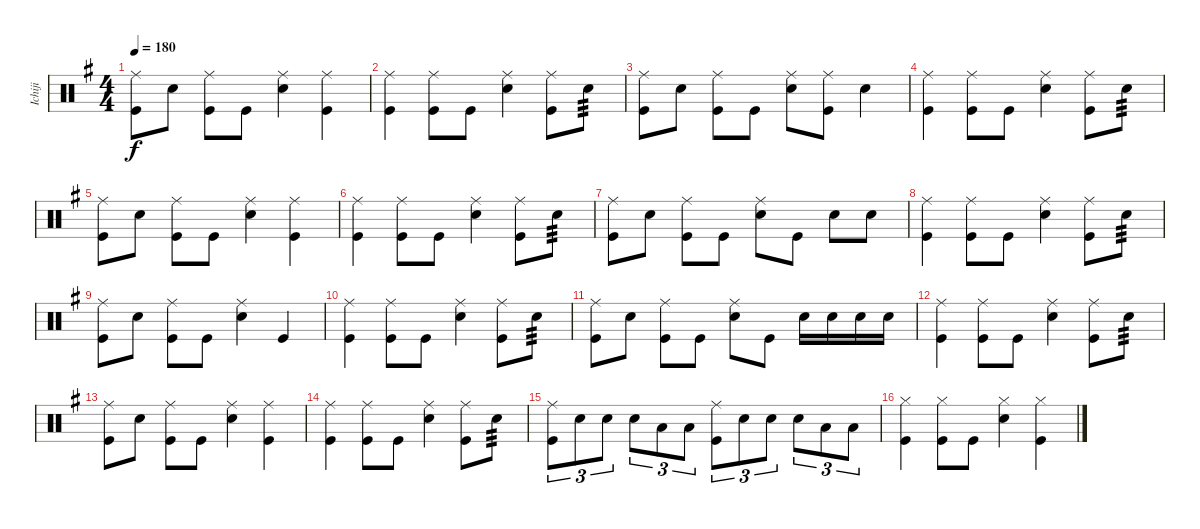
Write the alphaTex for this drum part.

\track ("Ichiji" "Ichiji") {instrument percussion}
\staff {score}
\articulation defaults
\ts (4 4)
\tempo 180
\clef neutral
\ks g
("Ride (middle)" "Kick (hit)").8{dy f} "Snare (hit) 2".8 ("Ride (middle)" "Kick (hit)").8 "Kick (hit)".8 ("Ride (middle)" "Snare (hit) 2").4 ("Ride (middle)" "Kick (hit)").4 |
("Ride (middle)" "Kick (hit)").4 ("Ride (middle)" "Kick (hit)").8 "Kick (hit)".8 ("Ride (middle)" "Snare (hit) 2").4 ("Ride (middle)" "Kick (hit)").8 "Snare (hit) 2".8{tp 3} |
("Ride (middle)" "Kick (hit)").8 "Snare (hit) 2".8 ("Ride (middle)" "Kick (hit)").8 "Kick (hit)".8 ("Ride (middle)" "Snare (hit) 2").8 ("Ride (middle)" "Kick (hit)").8 "Snare (hit) 2".4 |
("Ride (middle)" "Kick (hit)").4 ("Ride (middle)" "Kick (hit)").8 "Kick (hit)".8 ("Ride (middle)" "Snare (hit) 2").4 ("Ride (middle)" "Kick (hit)").8 "Snare (hit) 2".8{tp 3} |
("Ride (middle)" "Kick (hit)").8 "Snare (hit) 2".8 ("Ride (middle)" "Kick (hit)").8 "Kick (hit)".8 ("Ride (middle)" "Snare (hit) 2").4 ("Ride (middle)" "Kick (hit)").4 |
("Ride (middle)" "Kick (hit)").4 ("Ride (middle)" "Kick (hit)").8 "Kick (hit)".8 ("Ride (middle)" "Snare (hit) 2").4 ("Ride (middle)" "Kick (hit)").8 "Snare (hit) 2".8{tp 3} |
("Ride (middle)" "Kick (hit)").8 "Snare (hit) 2".8 ("Ride (middle)" "Kick (hit)").8 "Kick (hit)".8 ("Ride (middle)" "Snare (hit) 2").8 "Kick (hit)".8 "Snare (hit) 2".8 "Snare (hit) 2".8 |
("Ride (middle)" "Kick (hit)").4 ("Ride (middle)" "Kick (hit)").8 "Kick (hit)".8 ("Ride (middle)" "Snare (hit) 2").4 ("Ride (middle)" "Kick (hit)").8 "Snare (hit) 2".8{tp 3} |
("Ride (middle)" "Kick (hit)").8 "Snare (hit) 2".8 ("Ride (middle)" "Kick (hit)").8 "Kick (hit)".8 ("Ride (middle)" "Snare (hit) 2").4 "Kick (hit)".4 |
("Ride (middle)" "Kick (hit)").4 ("Ride (middle)" "Kick (hit)").8 "Kick (hit)".8 ("Ride (middle)" "Snare (hit) 2").4 ("Ride (middle)" "Kick (hit)").8 "Snare (hit) 2".8{tp 3} |
("Ride (middle)" "Kick (hit)").8 "Snare (hit) 2".8 ("Ride (middle)" "Kick (hit)").8 "Kick (hit)".8 ("Ride (middle)" "Snare (hit) 2").8 "Kick (hit)".8 "Snare (hit) 2".16 "Snare (hit) 2".16 "Snare (hit) 2".16 "Snare (hit) 2".16 |
("Ride (middle)" "Kick (hit)").4 ("Ride (middle)" "Kick (hit)").8 "Kick (hit)".8 ("Ride (middle)" "Snare (hit) 2").4 ("Ride (middle)" "Kick (hit)").8 "Snare (hit) 2".8{tp 3} |
("Ride (middle)" "Kick (hit)").8 "Snare (hit) 2".8 ("Ride (middle)" "Kick (hit)").8 "Kick (hit)".8 ("Ride (middle)" "Snare (hit) 2").4 ("Ride (middle)" "Kick (hit)").4 |
("Ride (middle)" "Kick (hit)").4 ("Ride (middle)" "Kick (hit)").8 "Kick (hit)".8 ("Ride (middle)" "Snare (hit) 2").4 ("Ride (middle)" "Kick (hit)").8 "Snare (hit) 2".8{tp 3} |
("Ride (middle)" "Kick (hit)").8{tu (3 2)} "Snare (hit) 2".8{tu (3 2)} "Snare (hit) 2".8{tu (3 2)} "Snare (hit) 2".8{tu (3 2)} "Low Tom (hit)".8{tu (3 2)} "Low Tom (hit)".8{tu (3 2)} ("Ride (middle)" "Kick (hit)").8{tu (3 2)} "Snare (hit) 2".8{tu (3 2)} "Snare (hit) 2".8{tu (3 2)} "Snare (hit) 2".8{tu (3 2)} "Low Tom (hit)".8{tu (3 2)} "Low Tom (hit)".8{tu (3 2)} |
("Hi-Hat (closed)" "Kick (hit)").4 ("Hi-Hat (closed)" "Kick (hit)").8 "Kick (hit)".8 ("Hi-Hat (closed)" "Snare (hit) 2").4 ("Hi-Hat (closed)" "Kick (hit)").4
